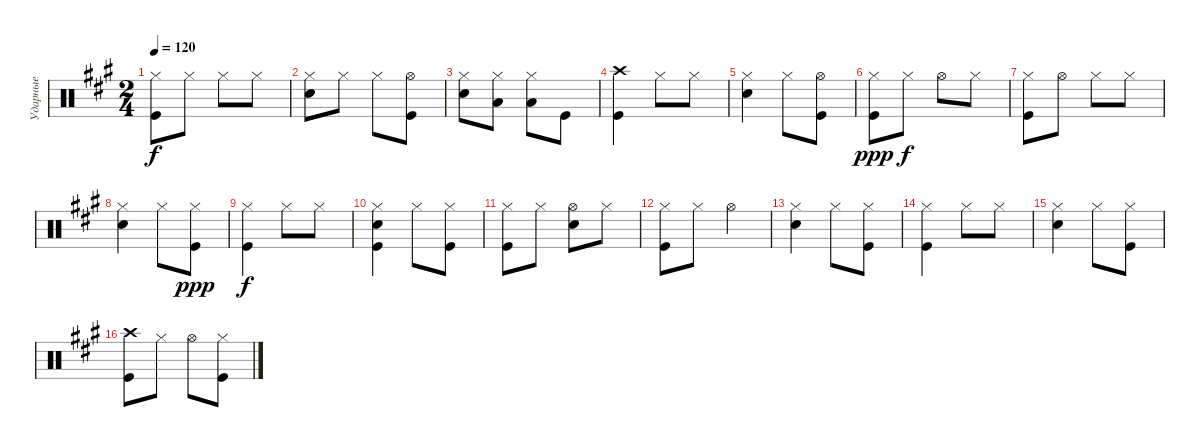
\track ("Ударные" "Ударные") {instrument percussion}
\staff {score}
\articulation defaults
\ts (2 4)
\tempo 120
\clef neutral
\ks f#minor
("Hi-Hat (closed)" "Kick (hit)").8{dy f} "Hi-Hat (closed)".8 "Hi-Hat (closed)".8 "Hi-Hat (closed)".8 |
("Snare (hit) 2" "Hi-Hat (closed)").8 "Hi-Hat (closed)".8 "Hi-Hat (closed)".8 ("Kick (hit)" "Hi-Hat (open)").8 |
("Snare (hit) 2" "Hi-Hat (closed)").8 ("Hi-Hat (closed)" "Low Tom (hit)").8 ("Low Tom (hit)" "Hi-Hat (closed)").8 "Kick (hit)".8 |
("Kick (hit)" "Crash high (hit)").4 "Hi-Hat (closed)".8 "Hi-Hat (closed)".8 |
("Snare (hit) 2" "Hi-Hat (closed)").4 "Hi-Hat (closed)".8 ("Kick (hit)" "Hi-Hat (open)").8 |
("Hi-Hat (closed)" "Kick (hit)").8{dy ppp} "Hi-Hat (closed)".8{dy f} "Hi-Hat (open)".8 "Hi-Hat (closed)".8 |
("Kick (hit)" "Hi-Hat (closed)").8 "Hi-Hat (open)".8 "Hi-Hat (closed)".8 "Hi-Hat (closed)".8 |
("Snare (hit) 2" "Hi-Hat (closed)").4 "Hi-Hat (closed)".8 ("Kick (hit)" "Hi-Hat (closed)").8{dy ppp} |
("Kick (hit)" "Hi-Hat (closed)").4{dy f} "Hi-Hat (closed)".8 "Hi-Hat (closed)".8 |
("Snare (hit) 2" "Kick (hit)" "Hi-Hat (closed)").4 "Hi-Hat (closed)".8 ("Hi-Hat (closed)" "Kick (hit)").8 |
("Kick (hit)" "Hi-Hat (closed)").8 "Hi-Hat (closed)".8 ("Snare (hit) 2" "Hi-Hat (open)").8 "Hi-Hat (closed)".8 |
("Kick (hit)" "Hi-Hat (closed)").8 "Hi-Hat (closed)".8 "Hi-Hat (open)".4 |
("Snare (hit) 2" "Hi-Hat (closed)").4 "Hi-Hat (closed)".8 ("Kick (hit)" "Hi-Hat (closed)").8 |
("Kick (hit)" "Hi-Hat (closed)").4 "Hi-Hat (closed)".8 "Hi-Hat (closed)".8 |
("Snare (hit) 2" "Hi-Hat (closed)").4 "Hi-Hat (closed)".8 ("Hi-Hat (closed)" "Kick (hit)").8 |
("Kick (hit)" "Crash high (hit)").8 "Hi-Hat (closed)".8 "Hi-Hat (open)".8 ("Hi-Hat (closed)" "Kick (hit)").8
